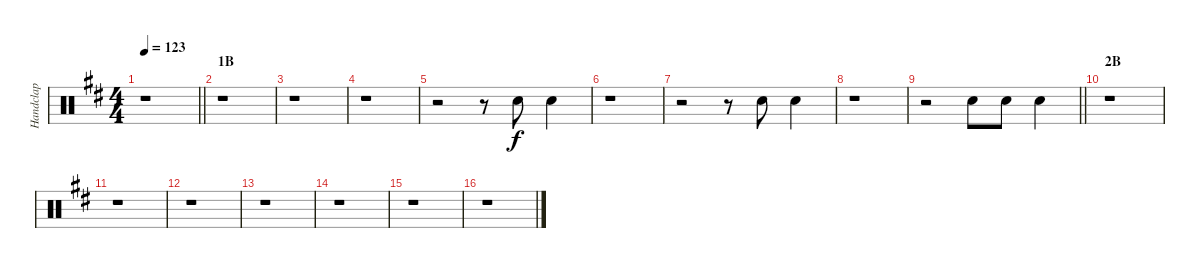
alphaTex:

\track ("Handclap" "Handclap") {instrument percussion}
\staff {score}
\articulation defaults
\ts (4 4)
\tempo 123
\clef neutral
\barLineRight lightlight
\ks d
r.1{dy f} |
\section ("" "1B")
r.1 |
r.1 |
r.1 |
r.2 r.8 "Hand Clap (hit)".8 "Hand Clap (hit)".4 |
r.1 |
r.2 r.8 "Hand Clap (hit)".8 "Hand Clap (hit)".4 |
r.1 |
\barLineRight lightlight
r.2 "Hand Clap (hit)".8 "Hand Clap (hit)".8 "Hand Clap (hit)".4 |
\section ("" "2B")
r.1 |
r.1 |
r.1 |
r.1 |
r.1 |
r.1 |
r.1
